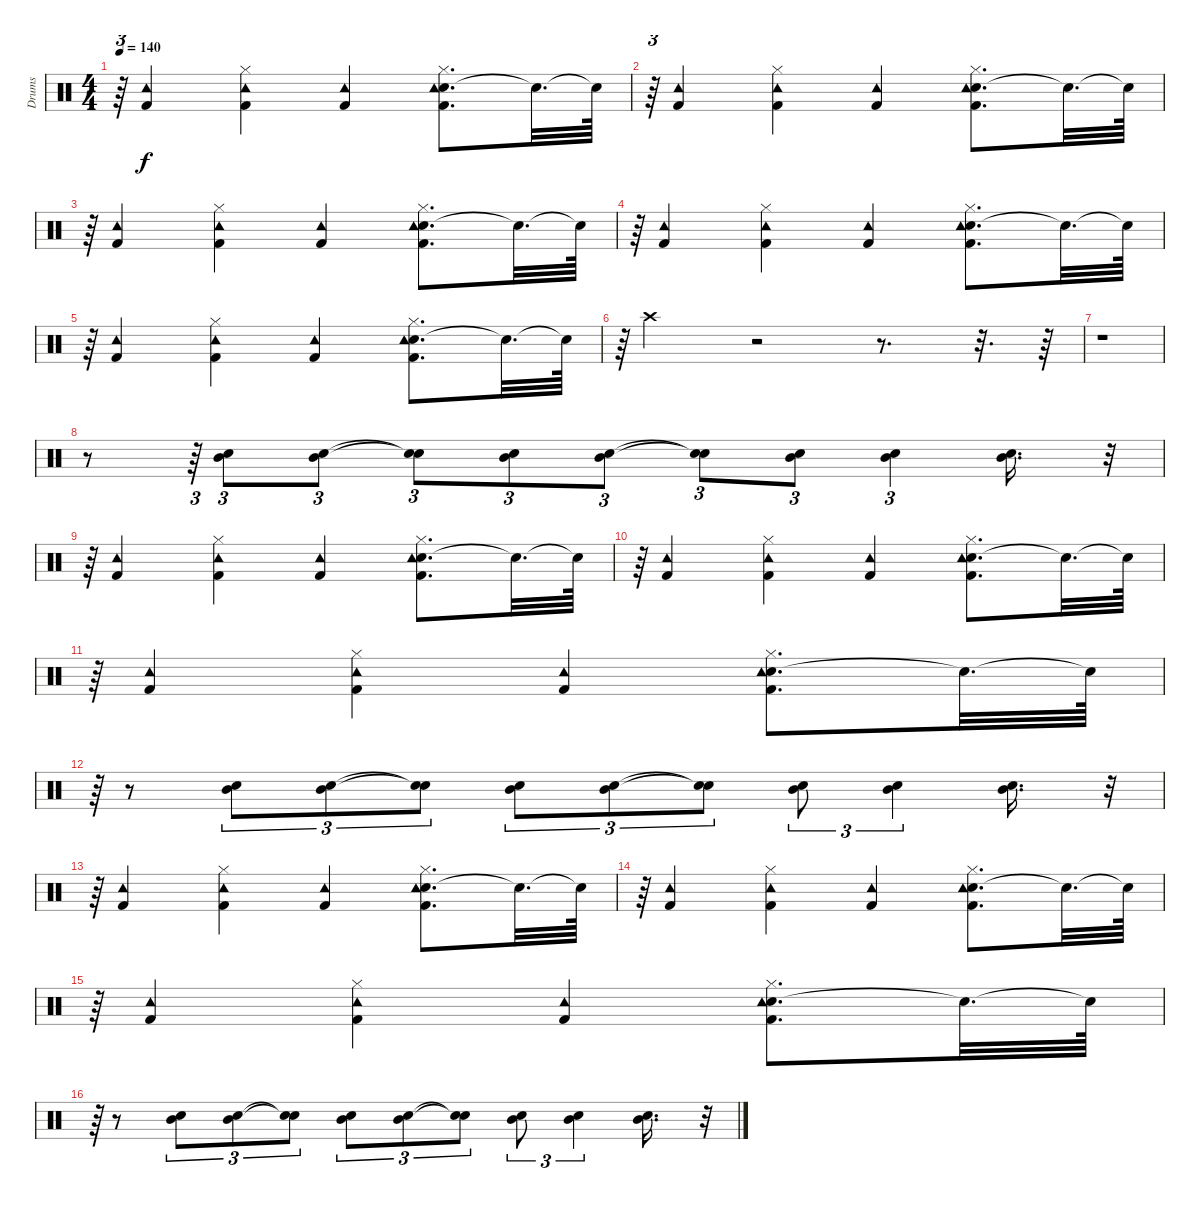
\track ("Drums" "Drums") {instrument percussion}
\staff {score}
\articulation defaults
\ts (4 4)
\tempo 140
\clef neutral
\ks c
r.64{tu (3 2) dy f} ("Tambourine (hit)" "Kick (hit) 2").4 ("Hi-Hat (closed)" "Tambourine (hit)" "Kick (hit) 2").4 ("Tambourine (hit)" "Kick (hit) 2").4 ("Electric Snare (hit)" "Hi-Hat (closed)" "Tambourine (hit)" "Kick (hit) 2").8{d} "Snare (hit)"{t}.32{d} "Snare (hit)"{t}.64 |
r.64{tu (3 2)} ("Tambourine (hit)" "Kick (hit) 2").4 ("Hi-Hat (closed)" "Tambourine (hit)" "Kick (hit) 2").4 ("Tambourine (hit)" "Kick (hit) 2").4 ("Electric Snare (hit)" "Hi-Hat (closed)" "Tambourine (hit)" "Kick (hit) 2").8{d} "Snare (hit)"{t}.32{d} "Snare (hit)"{t}.64 |
r.64{tu (3 2)} ("Tambourine (hit)" "Kick (hit) 2").4 ("Hi-Hat (closed)" "Tambourine (hit)" "Kick (hit) 2").4 ("Tambourine (hit)" "Kick (hit) 2").4 ("Electric Snare (hit)" "Hi-Hat (closed)" "Tambourine (hit)" "Kick (hit) 2").8{d} "Snare (hit)"{t}.32{d} "Snare (hit)"{t}.64 |
r.64{tu (3 2)} ("Tambourine (hit)" "Kick (hit) 2").4 ("Hi-Hat (closed)" "Tambourine (hit)" "Kick (hit) 2").4 ("Tambourine (hit)" "Kick (hit) 2").4 ("Electric Snare (hit)" "Hi-Hat (closed)" "Tambourine (hit)" "Kick (hit) 2").8{d} "Snare (hit)"{t}.32{d} "Snare (hit)"{t}.64 |
r.64{tu (3 2)} ("Tambourine (hit)" "Kick (hit) 2").4 ("Hi-Hat (closed)" "Tambourine (hit)" "Kick (hit) 2").4 ("Tambourine (hit)" "Kick (hit) 2").4 ("Electric Snare (hit)" "Hi-Hat (closed)" "Tambourine (hit)" "Kick (hit) 2").8{d} "Snare (hit)"{t}.32{d} "Snare (hit)"{t}.64 |
r.64{tu (3 2)} "Crash high (hit)".4 r.2 r.8{d} r.32{d} r.64 |
r.1 |
r.8 r.64{tu (3 2)} ("Mid Tom (hit)" "Electric Snare (hit)").8{tu (3 2)} ("Mid Tom (hit)" "Electric Snare (hit)").8{tu (3 2)} ("Snare (hit)"{t} "Snare (hit)"{t}).8{tu (3 2)} ("Mid Tom (hit)" "Electric Snare (hit)").8{tu (3 2)} ("Mid Tom (hit)" "Electric Snare (hit)").8{tu (3 2)} ("Snare (hit)"{t} "Snare (hit)"{t}).8{tu (3 2)} ("Mid Tom (hit)" "Electric Snare (hit)").8{tu (3 2)} ("Mid Tom (hit)" "Electric Snare (hit)").4{tu (3 2)} ("Mid Tom (hit)" "Electric Snare (hit)").16{d} r.32{tu (3 2)} |
r.64{tu (3 2)} ("Tambourine (hit)" "Kick (hit) 2").4 ("Hi-Hat (closed)" "Tambourine (hit)" "Kick (hit) 2").4 ("Tambourine (hit)" "Kick (hit) 2").4 ("Electric Snare (hit)" "Hi-Hat (closed)" "Tambourine (hit)" "Kick (hit) 2").8{d} "Snare (hit)"{t}.32{d} "Snare (hit)"{t}.64 |
r.64{tu (3 2)} ("Tambourine (hit)" "Kick (hit) 2").4 ("Hi-Hat (closed)" "Tambourine (hit)" "Kick (hit) 2").4 ("Tambourine (hit)" "Kick (hit) 2").4 ("Electric Snare (hit)" "Hi-Hat (closed)" "Tambourine (hit)" "Kick (hit) 2").8{d} "Snare (hit)"{t}.32{d} "Snare (hit)"{t}.64 |
r.64{tu (3 2)} ("Tambourine (hit)" "Kick (hit) 2").4 ("Hi-Hat (closed)" "Tambourine (hit)" "Kick (hit) 2").4 ("Tambourine (hit)" "Kick (hit) 2").4 ("Electric Snare (hit)" "Hi-Hat (closed)" "Tambourine (hit)" "Kick (hit) 2").8{d} "Snare (hit)"{t}.32{d} "Snare (hit)"{t}.64 |
r.64{tu (3 2)} r.8 ("Mid Tom (hit)" "Electric Snare (hit)").8{tu (3 2)} ("Mid Tom (hit)" "Electric Snare (hit)").8{tu (3 2)} ("Snare (hit)"{t} "Snare (hit)"{t}).8{tu (3 2)} ("Mid Tom (hit)" "Electric Snare (hit)").8{tu (3 2)} ("Mid Tom (hit)" "Electric Snare (hit)").8{tu (3 2)} ("Snare (hit)"{t} "Snare (hit)"{t}).8{tu (3 2)} ("Mid Tom (hit)" "Electric Snare (hit)").8{tu (3 2)} ("Mid Tom (hit)" "Electric Snare (hit)").4{tu (3 2)} ("Mid Tom (hit)" "Electric Snare (hit)").16{d} r.32{tu (3 2)} |
r.64{tu (3 2)} ("Tambourine (hit)" "Kick (hit) 2").4 ("Hi-Hat (closed)" "Tambourine (hit)" "Kick (hit) 2").4 ("Tambourine (hit)" "Kick (hit) 2").4 ("Electric Snare (hit)" "Hi-Hat (closed)" "Tambourine (hit)" "Kick (hit) 2").8{d} "Snare (hit)"{t}.32{d} "Snare (hit)"{t}.64 |
r.64{tu (3 2)} ("Tambourine (hit)" "Kick (hit) 2").4 ("Hi-Hat (closed)" "Tambourine (hit)" "Kick (hit) 2").4 ("Tambourine (hit)" "Kick (hit) 2").4 ("Electric Snare (hit)" "Hi-Hat (closed)" "Tambourine (hit)" "Kick (hit) 2").8{d} "Snare (hit)"{t}.32{d} "Snare (hit)"{t}.64 |
r.64{tu (3 2)} ("Tambourine (hit)" "Kick (hit) 2").4 ("Hi-Hat (closed)" "Tambourine (hit)" "Kick (hit) 2").4 ("Tambourine (hit)" "Kick (hit) 2").4 ("Electric Snare (hit)" "Hi-Hat (closed)" "Tambourine (hit)" "Kick (hit) 2").8{d} "Snare (hit)"{t}.32{d} "Snare (hit)"{t}.64 |
r.64{tu (3 2)} r.8 ("Mid Tom (hit)" "Electric Snare (hit)").8{tu (3 2)} ("Mid Tom (hit)" "Electric Snare (hit)").8{tu (3 2)} ("Snare (hit)"{t} "Snare (hit)"{t}).8{tu (3 2)} ("Mid Tom (hit)" "Electric Snare (hit)").8{tu (3 2)} ("Mid Tom (hit)" "Electric Snare (hit)").8{tu (3 2)} ("Snare (hit)"{t} "Snare (hit)"{t}).8{tu (3 2)} ("Mid Tom (hit)" "Electric Snare (hit)").8{tu (3 2)} ("Mid Tom (hit)" "Electric Snare (hit)").4{tu (3 2)} ("Mid Tom (hit)" "Electric Snare (hit)").16{d} r.32{tu (3 2)}
